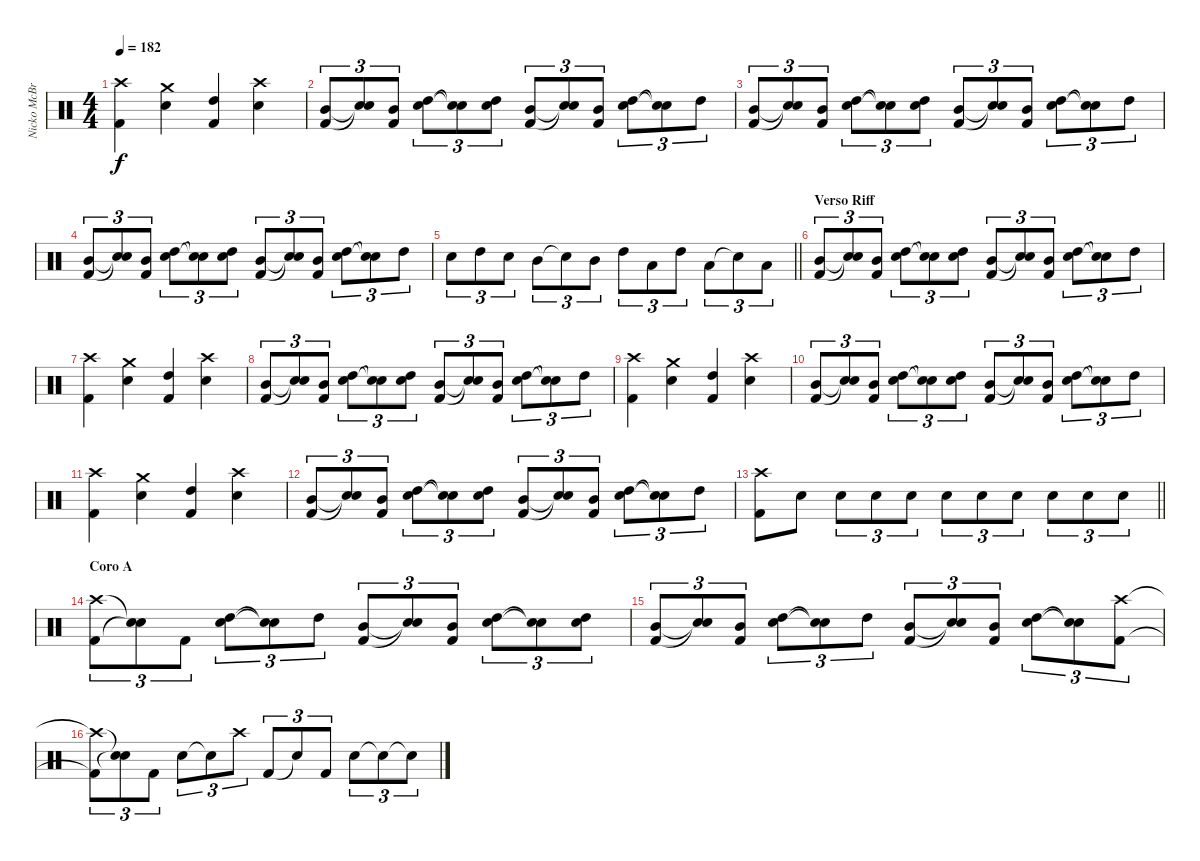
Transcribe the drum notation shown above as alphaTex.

\track ("Nicko McBrain" "Nicko McBr") {instrument percussion}
\staff {score}
\articulation defaults
\ts (4 4)
\tempo 182
\clef neutral
\ks c
("Kick (hit) 2" "Crash high (hit)").4{dy f} ("Snare (hit) 2" "Crash medium (hit)").4 ("High Tom (hit)" "Kick (hit) 2").4 ("Snare (hit) 2" "Crash high (hit)").4 |
("Mid Tom (hit)" "Kick (hit) 2").8{tu (3 2)} ("Snare (hit)"{t} "Snare (hit)"{t}).8{tu (3 2)} ("Mid Tom (hit)" "Kick (hit) 2").8{tu (3 2)} ("High Tom (hit)" "Snare (hit) 2").8{tu (3 2)} ("Snare (hit)"{t} "Snare (hit)"{t}).8{tu (3 2)} ("High Tom (hit)" "Snare (hit) 2").8{tu (3 2)} ("Mid Tom (hit)" "Kick (hit) 2").8{tu (3 2)} ("Snare (hit)"{t} "Snare (hit)"{t}).8{tu (3 2)} ("Mid Tom (hit)" "Kick (hit) 2").8{tu (3 2)} ("High Tom (hit)" "Snare (hit) 2").8{tu (3 2)} ("Snare (hit)"{t} "Snare (hit)"{t}).8{tu (3 2)} "High Tom (hit)".8{tu (3 2)} |
("Mid Tom (hit)" "Kick (hit) 2").8{tu (3 2)} ("Snare (hit)"{t} "Snare (hit)"{t}).8{tu (3 2)} ("Mid Tom (hit)" "Kick (hit) 2").8{tu (3 2)} ("High Tom (hit)" "Snare (hit) 2").8{tu (3 2)} ("Snare (hit)"{t} "Snare (hit)"{t}).8{tu (3 2)} ("High Tom (hit)" "Snare (hit) 2").8{tu (3 2)} ("Mid Tom (hit)" "Kick (hit) 2").8{tu (3 2)} ("Snare (hit)"{t} "Snare (hit)"{t}).8{tu (3 2)} ("Mid Tom (hit)" "Kick (hit) 2").8{tu (3 2)} ("High Tom (hit)" "Snare (hit) 2").8{tu (3 2)} ("Snare (hit)"{t} "Snare (hit)"{t}).8{tu (3 2)} "High Tom (hit)".8{tu (3 2)} |
("Mid Tom (hit)" "Kick (hit) 2").8{tu (3 2)} ("Snare (hit)"{t} "Snare (hit)"{t}).8{tu (3 2)} ("Mid Tom (hit)" "Kick (hit) 2").8{tu (3 2)} ("High Tom (hit)" "Snare (hit) 2").8{tu (3 2)} ("Snare (hit)"{t} "Snare (hit)"{t}).8{tu (3 2)} ("High Tom (hit)" "Snare (hit) 2").8{tu (3 2)} ("Mid Tom (hit)" "Kick (hit) 2").8{tu (3 2)} ("Snare (hit)"{t} "Snare (hit)"{t}).8{tu (3 2)} ("Mid Tom (hit)" "Kick (hit) 2").8{tu (3 2)} ("High Tom (hit)" "Snare (hit) 2").8{tu (3 2)} ("Snare (hit)"{t} "Snare (hit)"{t}).8{tu (3 2)} "High Tom (hit)".8{tu (3 2)} |
\barLineRight lightlight "Snare (hit) 2".8{tu (3 2)} "High Tom (hit)".8{tu (3 2)} "Snare (hit) 2".8{tu (3 2)} "Mid Tom (hit)".8{tu (3 2)} "Snare (hit)"{t}.8{tu (3 2)} "Mid Tom (hit)".8{tu (3 2)} "High Tom (hit)".8{tu (3 2)} "Low Tom (hit)".8{tu (3 2)} "High Tom (hit)".8{tu (3 2)} "Low Tom (hit)".8{tu (3 2)} "Snare (hit)"{t}.8{tu (3 2)} "Low Tom (hit)".8{tu (3 2)}
|
\section ("" "Verso Riff")
("Mid Tom (hit)" "Kick (hit) 2").8{tu (3 2)} ("Snare (hit)"{t} "Snare (hit)"{t}).8{tu (3 2)} ("Mid Tom (hit)" "Kick (hit) 2").8{tu (3 2)} ("High Tom (hit)" "Snare (hit) 2").8{tu (3 2)} ("Snare (hit)"{t} "Snare (hit)"{t}).8{tu (3 2)} ("High Tom (hit)" "Snare (hit) 2").8{tu (3 2)} ("Mid Tom (hit)" "Kick (hit) 2").8{tu (3 2)} ("Snare (hit)"{t} "Snare (hit)"{t}).8{tu (3 2)} ("Mid Tom (hit)" "Kick (hit) 2").8{tu (3 2)} ("High Tom (hit)" "Snare (hit) 2").8{tu (3 2)} ("Snare (hit)"{t} "Snare (hit)"{t}).8{tu (3 2)} "High Tom (hit)".8{tu (3 2)} |
("Kick (hit) 2" "Crash high (hit)").4 ("Snare (hit) 2" "Crash medium (hit)").4 ("High Tom (hit)" "Kick (hit) 2").4 ("Snare (hit) 2" "Crash high (hit)").4 |
("Mid Tom (hit)" "Kick (hit) 2").8{tu (3 2)} ("Snare (hit)"{t} "Snare (hit)"{t}).8{tu (3 2)} ("Mid Tom (hit)" "Kick (hit) 2").8{tu (3 2)} ("High Tom (hit)" "Snare (hit) 2").8{tu (3 2)} ("Snare (hit)"{t} "Snare (hit)"{t}).8{tu (3 2)} ("High Tom (hit)" "Snare (hit) 2").8{tu (3 2)} ("Mid Tom (hit)" "Kick (hit) 2").8{tu (3 2)} ("Snare (hit)"{t} "Snare (hit)"{t}).8{tu (3 2)} ("Mid Tom (hit)" "Kick (hit) 2").8{tu (3 2)} ("High Tom (hit)" "Snare (hit) 2").8{tu (3 2)} ("Snare (hit)"{t} "Snare (hit)"{t}).8{tu (3 2)} "High Tom (hit)".8{tu (3 2)} |
("Kick (hit) 2" "Crash high (hit)").4 ("Snare (hit) 2" "Crash medium (hit)").4 ("High Tom (hit)" "Kick (hit) 2").4 ("Snare (hit) 2" "Crash high (hit)").4 |
("Mid Tom (hit)" "Kick (hit) 2").8{tu (3 2)} ("Snare (hit)"{t} "Snare (hit)"{t}).8{tu (3 2)} ("Mid Tom (hit)" "Kick (hit) 2").8{tu (3 2)} ("High Tom (hit)" "Snare (hit) 2").8{tu (3 2)} ("Snare (hit)"{t} "Snare (hit)"{t}).8{tu (3 2)} ("High Tom (hit)" "Snare (hit) 2").8{tu (3 2)} ("Mid Tom (hit)" "Kick (hit) 2").8{tu (3 2)} ("Snare (hit)"{t} "Snare (hit)"{t}).8{tu (3 2)} ("Mid Tom (hit)" "Kick (hit) 2").8{tu (3 2)} ("High Tom (hit)" "Snare (hit) 2").8{tu (3 2)} ("Snare (hit)"{t} "Snare (hit)"{t}).8{tu (3 2)} "High Tom (hit)".8{tu (3 2)} |
("Kick (hit) 2" "Crash high (hit)").4 ("Snare (hit) 2" "Crash medium (hit)").4 ("High Tom (hit)" "Kick (hit) 2").4 ("Snare (hit) 2" "Crash high (hit)").4 |
("Mid Tom (hit)" "Kick (hit) 2").8{tu (3 2)} ("Snare (hit)"{t} "Snare (hit)"{t}).8{tu (3 2)} ("Mid Tom (hit)" "Kick (hit) 2").8{tu (3 2)} ("High Tom (hit)" "Snare (hit) 2").8{tu (3 2)} ("Snare (hit)"{t} "Snare (hit)"{t}).8{tu (3 2)} ("High Tom (hit)" "Snare (hit) 2").8{tu (3 2)} ("Mid Tom (hit)" "Kick (hit) 2").8{tu (3 2)} ("Snare (hit)"{t} "Snare (hit)"{t}).8{tu (3 2)} ("Mid Tom (hit)" "Kick (hit) 2").8{tu (3 2)} ("High Tom (hit)" "Snare (hit) 2").8{tu (3 2)} ("Snare (hit)"{t} "Snare (hit)"{t}).8{tu (3 2)} "High Tom (hit)".8{tu (3 2)} |
\barLineRight lightlight
("Kick (hit) 2" "Crash high (hit)").8 "Snare (hit) 2".8 "Snare (hit) 2".8{tu (3 2)} "Snare (hit) 2".8{tu (3 2)} "Snare (hit) 2".8{tu (3 2)} "Snare (hit) 2".8{tu (3 2)} "Snare (hit) 2".8{tu (3 2)} "Snare (hit) 2".8{tu (3 2)} "Snare (hit) 2".8{tu (3 2)} "Snare (hit) 2".8{tu (3 2)} "Snare (hit) 2".8{tu (3 2)} |
\section ("" "Coro A")
("Kick (hit) 2" "Crash high (hit)").8{tu (3 2)} ("Snare (hit)"{t} "Snare (hit)"{t}).8{tu (3 2)} "Kick (hit) 2".8{tu (3 2)} ("High Tom (hit)" "Snare (hit) 2").8{tu (3 2)} ("Snare (hit)"{t} "Snare (hit)"{t}).8{tu (3 2)} "High Tom (hit)".8{tu (3 2)} ("Mid Tom (hit)" "Kick (hit) 2").8{tu (3 2)} ("Snare (hit)"{t} "Snare (hit)"{t}).8{tu (3 2)} ("Mid Tom (hit)" "Kick (hit) 2").8{tu (3 2)} ("High Tom (hit)" "Snare (hit) 2").8{tu (3 2)} ("Snare (hit)"{t} "Snare (hit)"{t}).8{tu (3 2)} ("High Tom (hit)" "Snare (hit) 2").8{tu (3 2)} |
("Mid Tom (hit)" "Kick (hit) 2").8{tu (3 2)} ("Snare (hit)"{t} "Snare (hit)"{t}).8{tu (3 2)} ("Mid Tom (hit)" "Kick (hit) 2").8{tu (3 2)} ("High Tom (hit)" "Snare (hit) 2").8{tu (3 2)} ("Snare (hit)"{t} "Snare (hit)"{t}).8{tu (3 2)} "High Tom (hit)".8{tu (3 2)} ("Mid Tom (hit)" "Kick (hit) 2").8{tu (3 2)} ("Snare (hit)"{t} "Snare (hit)"{t}).8{tu (3 2)} ("Mid Tom (hit)" "Kick (hit) 2").8{tu (3 2)} ("High Tom (hit)" "Snare (hit) 2").8{tu (3 2)} ("Snare (hit)"{t} "Snare (hit)"{t}).8{tu (3 2)} ("Kick (hit) 2" "Crash high (hit)").8{tu (3 2)} |
("Kick (hit) 2"{t} "Crash high (hit)"{t}).8{tu (3 2)} ("Snare (hit)"{t} "Snare (hit)"{t}).8{tu (3 2)} "Kick (hit) 2".8{tu (3 2)} "Snare (hit) 2".8{tu (3 2)} "Snare (hit)"{t}.8{tu (3 2)} "Crash high (hit)".8{tu (3 2)} "Kick (hit) 2".8{tu (3 2)} "Snare (hit)"{t}.8{tu (3 2)} "Kick (hit) 2".8{tu (3 2)} "Snare (hit) 2".8{tu (3 2)} "Snare (hit)"{t}.8{tu (3 2)} "Snare (hit)"{t}.8{tu (3 2)}
